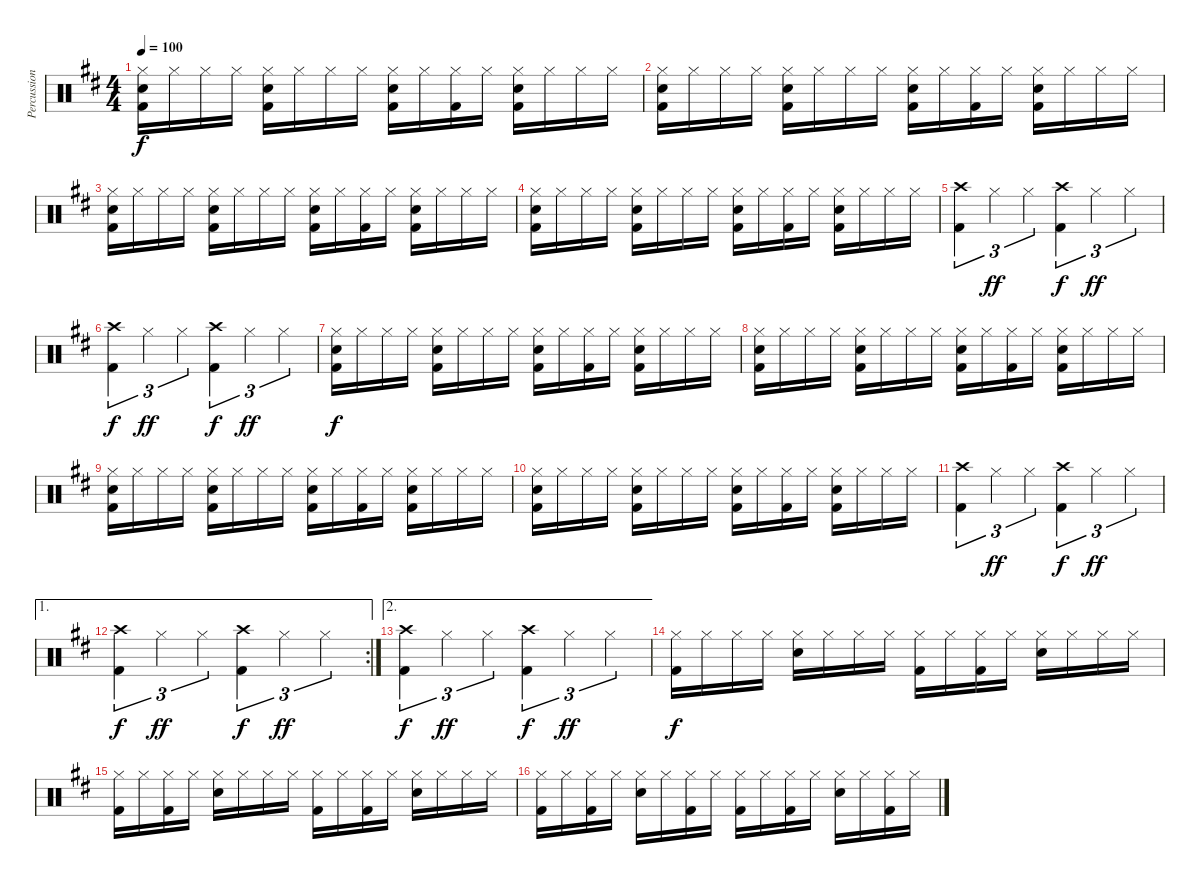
\track ("Percussion" "Percussion") {instrument percussion}
\staff {score}
\articulation defaults
\ts (4 4)
\tempo 100
\clef neutral
\ks d
("Hi-Hat (closed)" "Snare (hit) 2" "Kick (hit) 2").16{dy f} "Hi-Hat (closed)".16 "Hi-Hat (closed)".16 "Hi-Hat (closed)".16 ("Hi-Hat (closed)" "Kick (hit) 2" "Snare (hit) 2").16 "Hi-Hat (closed)".16 "Hi-Hat (closed)".16 "Hi-Hat (closed)".16 ("Hi-Hat (closed)" "Snare (hit) 2" "Kick (hit) 2").16 "Hi-Hat (closed)".16 ("Hi-Hat (closed)" "Kick (hit) 2").16 "Hi-Hat (closed)".16 ("Hi-Hat (closed)" "Snare (hit) 2" "Kick (hit) 2").16 "Hi-Hat (closed)".16 "Hi-Hat (closed)".16 "Hi-Hat (closed)".16 |
("Hi-Hat (closed)" "Snare (hit) 2" "Kick (hit) 2").16 "Hi-Hat (closed)".16 "Hi-Hat (closed)".16 "Hi-Hat (closed)".16 ("Hi-Hat (closed)" "Kick (hit) 2" "Snare (hit) 2").16 "Hi-Hat (closed)".16 "Hi-Hat (closed)".16 "Hi-Hat (closed)".16 ("Hi-Hat (closed)" "Snare (hit) 2" "Kick (hit) 2").16 "Hi-Hat (closed)".16 ("Hi-Hat (closed)" "Kick (hit) 2").16 "Hi-Hat (closed)".16 ("Hi-Hat (closed)" "Snare (hit) 2" "Kick (hit) 2").16 "Hi-Hat (closed)".16 "Hi-Hat (closed)".16 "Hi-Hat (closed)".16 |
("Hi-Hat (closed)" "Snare (hit) 2" "Kick (hit) 2").16 "Hi-Hat (closed)".16 "Hi-Hat (closed)".16 "Hi-Hat (closed)".16 ("Hi-Hat (closed)" "Kick (hit) 2" "Snare (hit) 2").16 "Hi-Hat (closed)".16 "Hi-Hat (closed)".16 "Hi-Hat (closed)".16 ("Hi-Hat (closed)" "Snare (hit) 2" "Kick (hit) 2").16 "Hi-Hat (closed)".16 ("Hi-Hat (closed)" "Kick (hit) 2").16 "Hi-Hat (closed)".16 ("Hi-Hat (closed)" "Snare (hit) 2" "Kick (hit) 2").16 "Hi-Hat (closed)".16 "Hi-Hat (closed)".16 "Hi-Hat (closed)".16 |
("Hi-Hat (closed)" "Snare (hit) 2" "Kick (hit) 2").16 "Hi-Hat (closed)".16 "Hi-Hat (closed)".16 "Hi-Hat (closed)".16 ("Hi-Hat (closed)" "Kick (hit) 2" "Snare (hit) 2").16 "Hi-Hat (closed)".16 "Hi-Hat (closed)".16 "Hi-Hat (closed)".16 ("Hi-Hat (closed)" "Snare (hit) 2" "Kick (hit) 2").16 "Hi-Hat (closed)".16 ("Hi-Hat (closed)" "Kick (hit) 2").16 "Hi-Hat (closed)".16 ("Hi-Hat (closed)" "Snare (hit) 2" "Kick (hit) 2").16 "Hi-Hat (closed)".16 "Hi-Hat (closed)".16 "Hi-Hat (closed)".16 |
("Crash high (hit)" "Kick (hit) 2").4{tu (3 2)} "Hi-Hat (closed)".4{tu (3 2) dy ff} "Hi-Hat (closed)".4{tu (3 2)} ("Crash high (hit)" "Kick (hit) 2").4{tu (3 2) dy f} "Hi-Hat (closed)".4{tu (3 2) dy ff} "Hi-Hat (closed)".4{tu (3 2)} |
("Crash high (hit)" "Kick (hit) 2").4{tu (3 2) dy f} "Hi-Hat (closed)".4{tu (3 2) dy ff} "Hi-Hat (closed)".4{tu (3 2)} ("Crash high (hit)" "Kick (hit) 2").4{tu (3 2) dy f} "Hi-Hat (closed)".4{tu (3 2) dy ff} "Hi-Hat (closed)".4{tu (3 2)} |
("Hi-Hat (closed)" "Snare (hit) 2" "Kick (hit) 2").16{dy f} "Hi-Hat (closed)".16 "Hi-Hat (closed)".16 "Hi-Hat (closed)".16 ("Hi-Hat (closed)" "Kick (hit) 2" "Snare (hit) 2").16 "Hi-Hat (closed)".16 "Hi-Hat (closed)".16 "Hi-Hat (closed)".16 ("Hi-Hat (closed)" "Snare (hit) 2" "Kick (hit) 2").16 "Hi-Hat (closed)".16 ("Hi-Hat (closed)" "Kick (hit) 2").16 "Hi-Hat (closed)".16 ("Hi-Hat (closed)" "Snare (hit) 2" "Kick (hit) 2").16 "Hi-Hat (closed)".16 "Hi-Hat (closed)".16 "Hi-Hat (closed)".16 |
("Hi-Hat (closed)" "Snare (hit) 2" "Kick (hit) 2").16 "Hi-Hat (closed)".16 "Hi-Hat (closed)".16 "Hi-Hat (closed)".16 ("Hi-Hat (closed)" "Kick (hit) 2" "Snare (hit) 2").16 "Hi-Hat (closed)".16 "Hi-Hat (closed)".16 "Hi-Hat (closed)".16 ("Hi-Hat (closed)" "Snare (hit) 2" "Kick (hit) 2").16 "Hi-Hat (closed)".16 ("Hi-Hat (closed)" "Kick (hit) 2").16 "Hi-Hat (closed)".16 ("Hi-Hat (closed)" "Snare (hit) 2" "Kick (hit) 2").16 "Hi-Hat (closed)".16 "Hi-Hat (closed)".16 "Hi-Hat (closed)".16 |
("Hi-Hat (closed)" "Snare (hit) 2" "Kick (hit) 2").16 "Hi-Hat (closed)".16 "Hi-Hat (closed)".16 "Hi-Hat (closed)".16 ("Hi-Hat (closed)" "Kick (hit) 2" "Snare (hit) 2").16 "Hi-Hat (closed)".16 "Hi-Hat (closed)".16 "Hi-Hat (closed)".16 ("Hi-Hat (closed)" "Snare (hit) 2" "Kick (hit) 2").16 "Hi-Hat (closed)".16 ("Hi-Hat (closed)" "Kick (hit) 2").16 "Hi-Hat (closed)".16 ("Hi-Hat (closed)" "Snare (hit) 2" "Kick (hit) 2").16 "Hi-Hat (closed)".16 "Hi-Hat (closed)".16 "Hi-Hat (closed)".16 |
("Hi-Hat (closed)" "Snare (hit) 2" "Kick (hit) 2").16 "Hi-Hat (closed)".16 "Hi-Hat (closed)".16 "Hi-Hat (closed)".16 ("Hi-Hat (closed)" "Kick (hit) 2" "Snare (hit) 2").16 "Hi-Hat (closed)".16 "Hi-Hat (closed)".16 "Hi-Hat (closed)".16 ("Hi-Hat (closed)" "Snare (hit) 2" "Kick (hit) 2").16 "Hi-Hat (closed)".16 ("Hi-Hat (closed)" "Kick (hit) 2").16 "Hi-Hat (closed)".16 ("Hi-Hat (closed)" "Snare (hit) 2" "Kick (hit) 2").16 "Hi-Hat (closed)".16 "Hi-Hat (closed)".16 "Hi-Hat (closed)".16 |
("Crash high (hit)" "Kick (hit) 2").4{tu (3 2)} "Hi-Hat (closed)".4{tu (3 2) dy ff} "Hi-Hat (closed)".4{tu (3 2)} ("Crash high (hit)" "Kick (hit) 2").4{tu (3 2) dy f} "Hi-Hat (closed)".4{tu (3 2) dy ff} "Hi-Hat (closed)".4{tu (3 2)} |
\ae 1
\rc 2
("Crash high (hit)" "Kick (hit) 2").4{tu (3 2) dy f} "Hi-Hat (closed)".4{tu (3 2) dy ff} "Hi-Hat (closed)".4{tu (3 2)} ("Crash high (hit)" "Kick (hit) 2").4{tu (3 2) dy f} "Hi-Hat (closed)".4{tu (3 2) dy ff} "Hi-Hat (closed)".4{tu (3 2)} |
\ae 2
("Crash high (hit)" "Kick (hit) 2").4{tu (3 2) dy f} "Hi-Hat (closed)".4{tu (3 2) dy ff} "Hi-Hat (closed)".4{tu (3 2)} ("Crash high (hit)" "Kick (hit) 2").4{tu (3 2) dy f} "Hi-Hat (closed)".4{tu (3 2) dy ff} "Hi-Hat (closed)".4{tu (3 2)} |
("Hi-Hat (closed)" "Kick (hit) 2").16{dy f} "Hi-Hat (closed)".16 "Hi-Hat (closed)".16 "Hi-Hat (closed)".16 ("Hi-Hat (closed)" "Snare (hit) 2").16 "Hi-Hat (closed)".16 "Hi-Hat (closed)".16 "Hi-Hat (closed)".16 ("Hi-Hat (closed)" "Kick (hit) 2").16 "Hi-Hat (closed)".16 ("Hi-Hat (closed)" "Kick (hit) 2").16 "Hi-Hat (closed)".16 ("Hi-Hat (closed)" "Snare (hit) 2").16 "Hi-Hat (closed)".16 "Hi-Hat (closed)".16 "Hi-Hat (closed)".16 |
("Hi-Hat (closed)" "Kick (hit) 2").16 "Hi-Hat (closed)".16 ("Hi-Hat (closed)" "Kick (hit) 2").16 "Hi-Hat (closed)".16 ("Hi-Hat (closed)" "Snare (hit) 2").16 "Hi-Hat (closed)".16 "Hi-Hat (closed)".16 "Hi-Hat (closed)".16 ("Hi-Hat (closed)" "Kick (hit) 2").16 "Hi-Hat (closed)".16 ("Hi-Hat (closed)" "Kick (hit) 2").16 "Hi-Hat (closed)".16 ("Hi-Hat (closed)" "Snare (hit) 2").16 "Hi-Hat (closed)".16 "Hi-Hat (closed)".16 "Hi-Hat (closed)".16 |
("Hi-Hat (closed)" "Kick (hit) 2").16 "Hi-Hat (closed)".16 ("Hi-Hat (closed)" "Kick (hit) 2").16 "Hi-Hat (closed)".16 ("Hi-Hat (closed)" "Snare (hit) 2").16 "Hi-Hat (closed)".16 ("Hi-Hat (closed)" "Kick (hit) 2").16 "Hi-Hat (closed)".16 ("Hi-Hat (closed)" "Kick (hit) 2").16 "Hi-Hat (closed)".16 ("Hi-Hat (closed)" "Kick (hit) 2").16 "Hi-Hat (closed)".16 ("Hi-Hat (closed)" "Snare (hit) 2").16 "Hi-Hat (closed)".16 ("Hi-Hat (closed)" "Kick (hit) 2").16 "Hi-Hat (closed)".16
